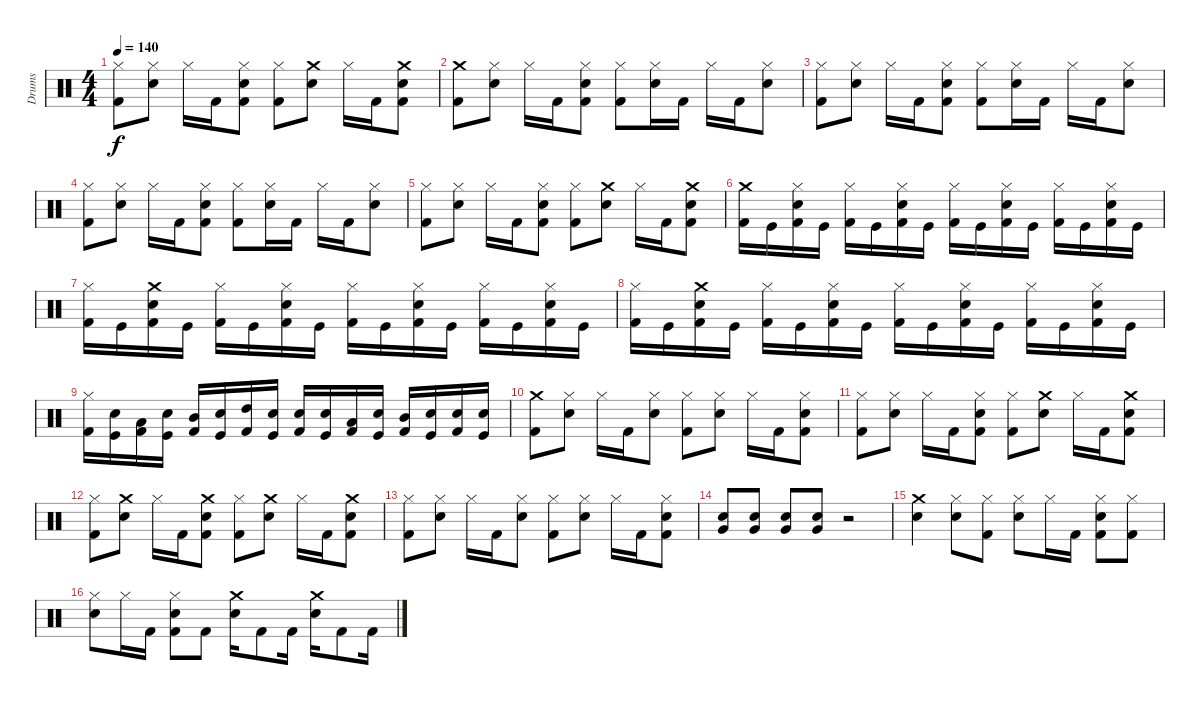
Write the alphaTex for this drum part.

\track ("Drums" "Drums") {instrument percussion}
\staff {score}
\articulation defaults
\ts (4 4)
\tempo 140
\clef neutral
\ks c
("Hi-Hat (closed)" "Kick (hit) 2").8{dy f} ("Snare (hit) 2" "Hi-Hat (closed)").8 "Hi-Hat (closed)".16 "Kick (hit) 2".16 ("Kick (hit) 2" "Snare (hit) 2" "Hi-Hat (closed)").8 ("Hi-Hat (closed)" "Kick (hit) 2").8 ("Crash medium (hit)" "Snare (hit) 2").8 "Hi-Hat (closed)".16 "Kick (hit) 2".16 ("Kick (hit) 2" "Crash medium (hit)" "Snare (hit) 2").8 |
("Crash medium (hit)" "Kick (hit) 2").8 ("Snare (hit) 2" "Hi-Hat (closed)").8 "Hi-Hat (closed)".16 "Kick (hit) 2".16 ("Kick (hit) 2" "Snare (hit) 2" "Hi-Hat (closed)").8 ("Kick (hit) 2" "Hi-Hat (closed)").8 ("Snare (hit) 2" "Hi-Hat (closed)").16 "Kick (hit) 2".16 "Hi-Hat (closed)".16 "Kick (hit) 2".16 ("Snare (hit) 2" "Hi-Hat (closed)").8 |
("Hi-Hat (closed)" "Kick (hit) 2").8 ("Snare (hit) 2" "Hi-Hat (closed)").8 "Hi-Hat (closed)".16 "Kick (hit) 2".16 ("Kick (hit) 2" "Snare (hit) 2" "Hi-Hat (closed)").8 ("Kick (hit) 2" "Hi-Hat (closed)").8 ("Snare (hit) 2" "Hi-Hat (closed)").16 "Kick (hit) 2".16 "Hi-Hat (closed)".16 "Kick (hit) 2".16 ("Snare (hit) 2" "Hi-Hat (closed)").8 |
("Hi-Hat (closed)" "Kick (hit) 2").8 ("Snare (hit) 2" "Hi-Hat (closed)").8 "Hi-Hat (closed)".16 "Kick (hit) 2".16 ("Kick (hit) 2" "Snare (hit) 2" "Hi-Hat (closed)").8 ("Kick (hit) 2" "Hi-Hat (closed)").8 ("Snare (hit) 2" "Hi-Hat (closed)").16 "Kick (hit) 2".16 "Hi-Hat (closed)".16 "Kick (hit) 2".16 ("Snare (hit) 2" "Hi-Hat (closed)").8 |
("Hi-Hat (closed)" "Kick (hit) 2").8 ("Snare (hit) 2" "Hi-Hat (closed)").8 "Hi-Hat (closed)".16 "Kick (hit) 2".16 ("Kick (hit) 2" "Snare (hit) 2" "Hi-Hat (closed)").8 ("Hi-Hat (closed)" "Kick (hit) 2").8 ("Crash medium (hit)" "Snare (hit) 2").8 "Hi-Hat (closed)".16 "Kick (hit) 2".16 ("Kick (hit) 2" "Crash medium (hit)" "Snare (hit) 2").8 |
("Crash medium (hit)" "Kick (hit) 2").16 "Kick (hit)".16 ("Snare (hit) 2" "Hi-Hat (closed)" "Kick (hit) 2").16 "Kick (hit)".16 ("Hi-Hat (closed)" "Kick (hit) 2").16 "Kick (hit)".16 ("Snare (hit) 2" "Hi-Hat (closed)" "Kick (hit) 2").16 "Kick (hit)".16 ("Hi-Hat (closed)" "Kick (hit) 2").16 "Kick (hit)".16 ("Snare (hit) 2" "Hi-Hat (closed)" "Kick (hit) 2").16 "Kick (hit)".16 ("Hi-Hat (closed)" "Kick (hit) 2").16 "Kick (hit)".16 ("Snare (hit) 2" "Hi-Hat (closed)" "Kick (hit) 2").16 "Kick (hit)".16 |
("Hi-Hat (closed)" "Kick (hit) 2").16 "Kick (hit)".16 ("Crash medium (hit)" "Snare (hit) 2" "Kick (hit) 2").16 "Kick (hit)".16 ("Hi-Hat (closed)" "Kick (hit) 2").16 "Kick (hit)".16 ("Snare (hit) 2" "Hi-Hat (closed)" "Kick (hit) 2").16 "Kick (hit)".16 ("Hi-Hat (closed)" "Kick (hit) 2").16 "Kick (hit)".16 ("Snare (hit) 2" "Hi-Hat (closed)" "Kick (hit) 2").16 "Kick (hit)".16 ("Hi-Hat (closed)" "Kick (hit) 2").16 "Kick (hit)".16 ("Snare (hit) 2" "Hi-Hat (closed)" "Kick (hit) 2").16 "Kick (hit)".16 |
("Hi-Hat (closed)" "Kick (hit) 2").16 "Kick (hit)".16 ("Crash medium (hit)" "Snare (hit) 2" "Kick (hit) 2").16 "Kick (hit)".16 ("Hi-Hat (closed)" "Kick (hit) 2").16 "Kick (hit)".16 ("Snare (hit) 2" "Hi-Hat (closed)" "Kick (hit) 2").16 "Kick (hit)".16 ("Hi-Hat (closed)" "Kick (hit) 2").16 "Kick (hit)".16 ("Snare (hit) 2" "Hi-Hat (closed)" "Kick (hit) 2").16 "Kick (hit)".16 ("Hi-Hat (closed)" "Kick (hit) 2").16 "Kick (hit)".16 ("Snare (hit) 2" "Hi-Hat (closed)" "Kick (hit) 2").16 "Kick (hit)".16 |
("Hi-Hat (closed)" "Kick (hit) 2").16 ("Snare (hit) 2" "Kick (hit)").16 ("Low Tom (hit)" "Kick (hit) 2").16 ("Snare (hit) 2" "Kick (hit)").16 ("Mid Tom (hit)" "Kick (hit) 2").16 ("Snare (hit) 2" "Kick (hit)").16 ("High Tom (hit)" "Kick (hit) 2").16 ("Snare (hit) 2" "Kick (hit)").16 ("Snare (hit) 2" "Kick (hit) 2").16 ("Snare (hit) 2" "Kick (hit)").16 ("Low Tom (hit)" "Kick (hit) 2").16 ("Snare (hit) 2" "Kick (hit)").16 ("Mid Tom (hit)" "Kick (hit) 2").16 ("Snare (hit) 2" "Kick (hit)").16 ("Snare (hit) 2" "Kick (hit) 2").16 ("Snare (hit) 2" "Kick (hit)").16 |
("Crash medium (hit)" "Kick (hit) 2").8 ("Snare (hit) 2" "Hi-Hat (closed)").8 "Hi-Hat (closed)".16 "Kick (hit) 2".16 ("Snare (hit) 2" "Hi-Hat (closed)").8 ("Hi-Hat (closed)" "Kick (hit) 2").8 ("Snare (hit) 2" "Hi-Hat (closed)").8 "Hi-Hat (closed)".16 "Kick (hit) 2".16 ("Snare (hit) 2" "Hi-Hat (closed)" "Kick (hit) 2").8 |
("Hi-Hat (closed)" "Kick (hit) 2").8 ("Snare (hit) 2" "Hi-Hat (closed)").8 "Hi-Hat (closed)".16 "Kick (hit) 2".16 ("Snare (hit) 2" "Hi-Hat (closed)" "Kick (hit) 2").8 ("Hi-Hat (closed)" "Kick (hit) 2").8 ("Crash medium (hit)" "Snare (hit) 2").8 "Hi-Hat (closed)".16 "Kick (hit) 2".16 ("Crash medium (hit)" "Snare (hit) 2" "Kick (hit) 2").8 |
("Hi-Hat (closed)" "Kick (hit) 2").8 ("Crash medium (hit)" "Snare (hit) 2").8 "Hi-Hat (closed)".16 "Kick (hit) 2".16 ("Crash medium (hit)" "Snare (hit) 2" "Kick (hit) 2").8 ("Hi-Hat (closed)" "Kick (hit) 2").8 ("Crash medium (hit)" "Snare (hit) 2").8 "Hi-Hat (closed)".16 "Kick (hit) 2".16 ("Crash medium (hit)" "Snare (hit) 2" "Kick (hit) 2").8 |
("Hi-Hat (closed)" "Kick (hit) 2").8 ("Snare (hit) 2" "Hi-Hat (closed)").8 "Hi-Hat (closed)".16 "Kick (hit) 2".16 ("Snare (hit) 2" "Hi-Hat (closed)").8 ("Hi-Hat (closed)" "Kick (hit) 2").8 ("Snare (hit) 2" "Hi-Hat (closed)").8 "Hi-Hat (closed)".16 "Kick (hit) 2".16 ("Snare (hit) 2" "Hi-Hat (closed)" "Kick (hit) 2").8 |
("Very Low Tom (hit)" "Snare (hit) 2").8 ("Very Low Tom (hit)" "Snare (hit) 2").8 ("Very Low Tom (hit)" "Snare (hit) 2").8 ("Very Low Tom (hit)" "Snare (hit) 2").8 r.2 |
("Snare (hit) 2" "Crash medium (hit)").4 ("Hi-Hat (closed)" "Snare (hit) 2").8 ("Kick (hit) 2" "Hi-Hat (closed)").8 ("Hi-Hat (closed)" "Snare (hit) 2").8 "Hi-Hat (closed)".16 "Kick (hit) 2".16 ("Kick (hit) 2" "Snare (hit) 2" "Hi-Hat (closed)").8 ("Hi-Hat (closed)" "Kick (hit) 2").8 |
("Hi-Hat (closed)" "Snare (hit) 2").8 "Hi-Hat (closed)".16 "Kick (hit) 2".16 ("Kick (hit) 2" "Snare (hit) 2" "Hi-Hat (closed)").8 "Kick (hit) 2".8 ("Snare (hit) 2" "Crash medium (hit)").16 "Kick (hit) 2".8 "Kick (hit) 2".16 ("Snare (hit) 2" "Crash medium (hit)").16 "Kick (hit) 2".8 "Kick (hit) 2".16
